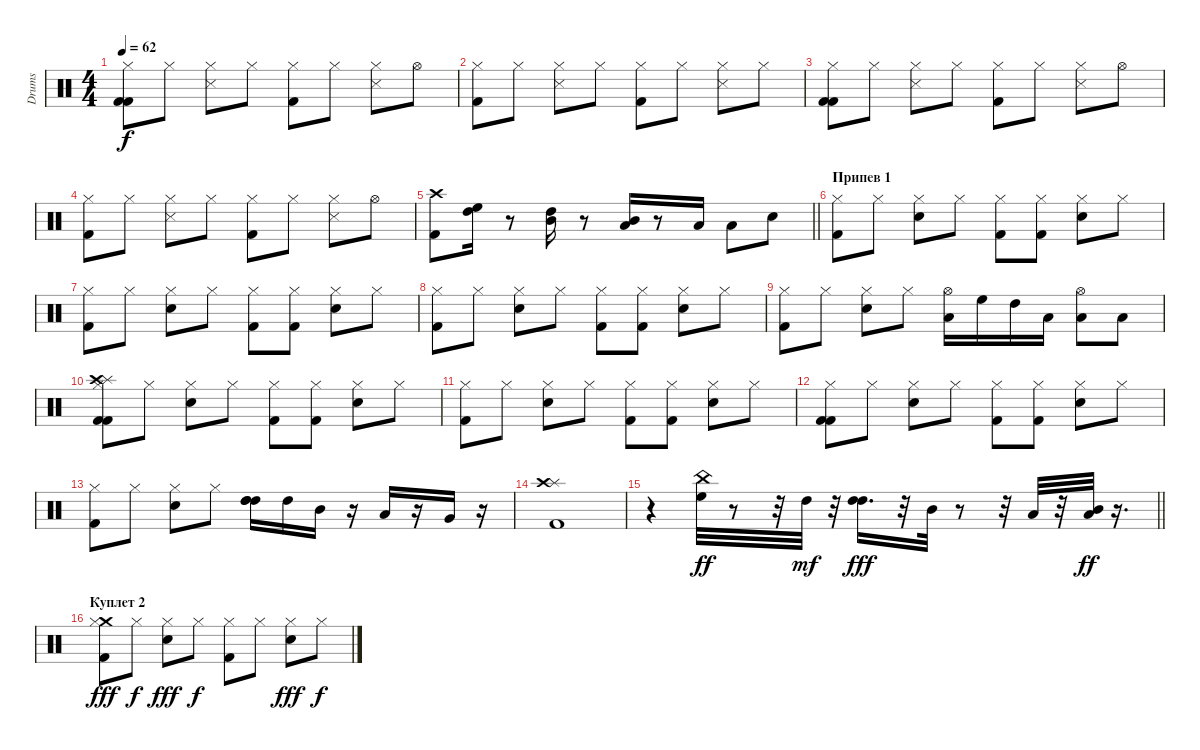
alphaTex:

\track ("Drums" "Drums") {instrument percussion}
\staff {score}
\articulation defaults
\ts (4 4)
\tempo 62
\clef neutral
\ks c
("Kick (hit) 2" "Hi-Hat (closed)" "Kick (hit) 2").8{dy f} "Hi-Hat (closed)".8 ("Snare (side stick) 3" "Hi-Hat (closed)").8 "Hi-Hat (closed)".8 ("Kick (hit) 2" "Hi-Hat (closed)").8 "Hi-Hat (closed)".8 ("Snare (side stick) 3" "Hi-Hat (closed)").8 "Hi-Hat (open)".8 |
("Kick (hit) 2" "Hi-Hat (closed)").8 "Hi-Hat (closed)".8 ("Snare (side stick) 3" "Hi-Hat (closed)").8 "Hi-Hat (closed)".8 ("Kick (hit) 2" "Hi-Hat (closed)").8 "Hi-Hat (closed)".8 ("Snare (side stick) 3" "Hi-Hat (closed)").8 "Hi-Hat (closed)".8 |
("Kick (hit) 2" "Hi-Hat (closed)" "Kick (hit) 2").8 "Hi-Hat (closed)".8 ("Snare (side stick) 3" "Hi-Hat (closed)").8 "Hi-Hat (closed)".8 ("Kick (hit) 2" "Hi-Hat (closed)").8 "Hi-Hat (closed)".8 ("Snare (side stick) 3" "Hi-Hat (closed)").8 "Hi-Hat (open)".8 |
("Kick (hit) 2" "Hi-Hat (closed)").8 "Hi-Hat (closed)".8 ("Snare (side stick) 3" "Hi-Hat (closed)").8 "Hi-Hat (closed)".8 ("Kick (hit) 2" "Hi-Hat (closed)").8 "Hi-Hat (closed)".8 ("Snare (side stick) 3" "Hi-Hat (closed)").8 "Hi-Hat (open)".8 |
\barLineRight lightlight
("Crash high (hit)" "Kick (hit) 2").8 ("High Floor Tom (hit)" "High Tom (hit)").16 r.8 ("Mid Tom (hit)" "High Tom (hit)").16 r.8 ("Mid Tom (hit)" "Low Tom (hit)").16 r.8 "Low Floor Tom (hit)".16 "Low Floor Tom (hit)".8 "Snare (hit) 2".8 |
\section ("" "Припев 1")
("Kick (hit) 2" "Hi-Hat (closed)").8 "Hi-Hat (closed)".8 ("Snare (hit) 2" "Hi-Hat (closed)").8 "Hi-Hat (closed)".8 ("Kick (hit) 2" "Hi-Hat (closed)").8 ("Kick (hit) 2" "Hi-Hat (closed)").8 ("Snare (hit) 2" "Hi-Hat (closed)").8 "Hi-Hat (closed)".8 |
("Kick (hit) 2" "Hi-Hat (closed)").8 "Hi-Hat (closed)".8 ("Snare (hit) 2" "Hi-Hat (closed)").8 "Hi-Hat (closed)".8 ("Kick (hit) 2" "Hi-Hat (closed)").8 ("Kick (hit) 2" "Hi-Hat (closed)").8 ("Snare (hit) 2" "Hi-Hat (closed)").8 "Hi-Hat (closed)".8 |
("Kick (hit) 2" "Hi-Hat (closed)").8 "Hi-Hat (closed)".8 ("Snare (hit) 2" "Hi-Hat (closed)").8 "Hi-Hat (closed)".8 ("Kick (hit) 2" "Hi-Hat (closed)").8 ("Kick (hit) 2" "Hi-Hat (closed)").8 ("Snare (hit) 2" "Hi-Hat (closed)").8 "Hi-Hat (closed)".8 |
("Kick (hit) 2" "Hi-Hat (closed)").8 "Hi-Hat (closed)".8 ("Snare (hit) 2" "Hi-Hat (closed)").8 "Hi-Hat (closed)".8 ("Hi-Hat (open)" "Low Tom (hit)").16 "High Floor Tom (hit)".16 "High Tom (hit)".16 "Low Tom (hit)".16 ("Hi-Hat (open)" "Low Floor Tom (hit)").8 "Low Floor Tom (hit)".8 |
("Kick (hit) 2" "Hi-Hat (closed)" "Splash (hit)" "Crash high (hit)" "Kick (hit) 2").8 "Hi-Hat (closed)".8 ("Snare (hit) 2" "Hi-Hat (closed)").8 "Hi-Hat (closed)".8 ("Kick (hit) 2" "Hi-Hat (closed)").8 ("Kick (hit) 2" "Hi-Hat (closed)").8 ("Snare (hit) 2" "Hi-Hat (closed)").8 "Hi-Hat (closed)".8 |
("Kick (hit) 2" "Hi-Hat (closed)").8 "Hi-Hat (closed)".8 ("Snare (hit) 2" "Hi-Hat (closed)").8 "Hi-Hat (closed)".8 ("Kick (hit) 2" "Hi-Hat (closed)").8 ("Kick (hit) 2" "Hi-Hat (closed)").8 ("Snare (hit) 2" "Hi-Hat (closed)").8 "Hi-Hat (closed)".8 |
("Kick (hit) 2" "Hi-Hat (closed)" "Kick (hit) 2").8 "Hi-Hat (closed)".8 ("Snare (hit) 2" "Hi-Hat (closed)").8 "Hi-Hat (closed)".8 ("Kick (hit) 2" "Hi-Hat (closed)").8 ("Kick (hit) 2" "Hi-Hat (closed)").8 ("Snare (hit) 2" "Hi-Hat (closed)").8 "Hi-Hat (closed)".8 |
("Kick (hit) 2" "Hi-Hat (closed)").8 "Hi-Hat (closed)".8 ("Snare (hit) 2" "Hi-Hat (closed)").8 "Hi-Hat (closed)".8 ("High Tom (hit)" "High Tom (hit)" "High Tom (hit)").16 "High Tom (hit)".16 "Mid Tom (hit)".16 r.16 "Low Tom (hit)".16 r.16 "Very Low Tom (hit)".16 r.16 |
("Splash (hit)" "Crash high (hit)" "Kick (hit) 2").1 |
\barLineRight lightlight
r.4 ("High Floor Tom (hit)" "China (hit)").32{dy ff} r.8 r.32 "High Tom (hit)".32{dy mf} r.32 ("High Tom (hit)" "High Tom (hit)").16{d dy fff} r.32 "Mid Tom (hit)".32 r.8 r.32 "Low Tom (hit)".32 r.32 ("Low Tom (hit)" "Mid Tom (hit)").32{dy ff} r.16{d} |
\section ("" "Куплет 2")
("Crash medium (hit)" "Kick (hit) 2" "Hi-Hat (closed)").8{dy fff} "Hi-Hat (closed)".8{dy f} ("Hi-Hat (closed)" "Electric Snare (hit)").8{dy fff} "Hi-Hat (closed)".8{dy f} ("Kick (hit) 2" "Hi-Hat (closed)").8 "Hi-Hat (closed)".8 ("Hi-Hat (closed)" "Electric Snare (hit)").8{dy fff} "Hi-Hat (closed)".8{dy f}
